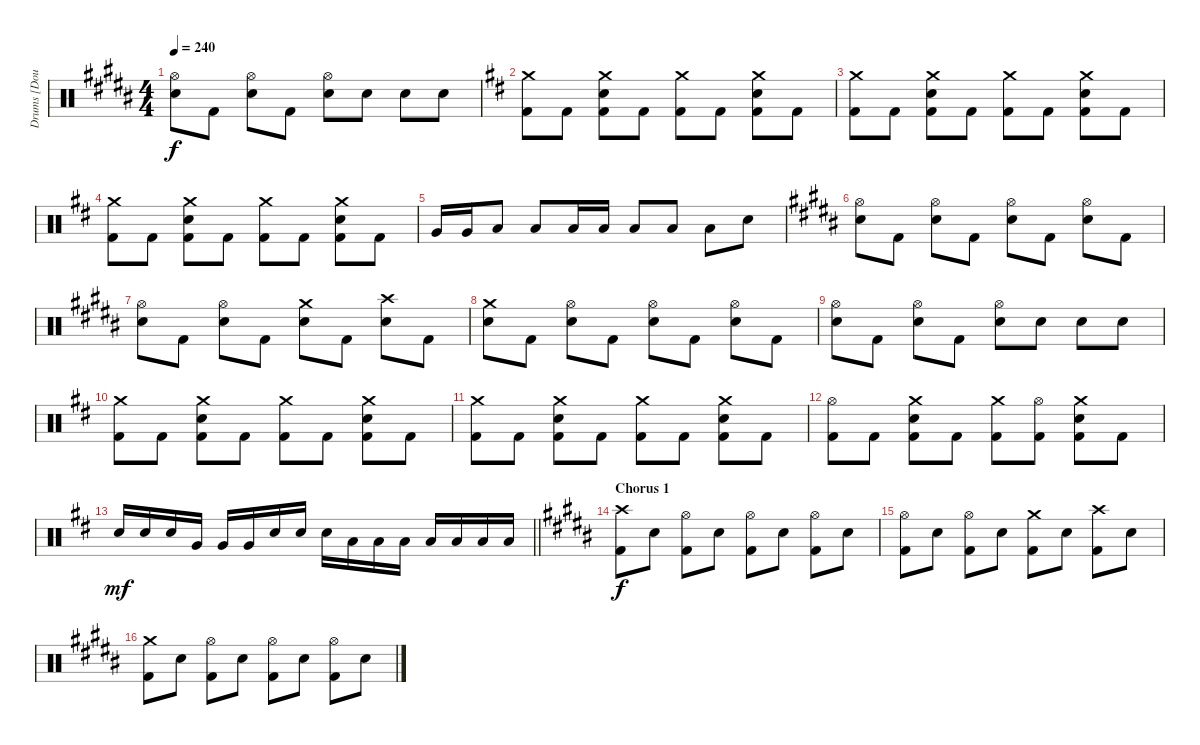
\track ("Drums [Doug Anderson]" "Drums [Dou") {instrument percussion}
\staff {score}
\articulation defaults
\ts (4 4)
\tempo 240
\clef neutral
\ks b
("Hi-Hat (open)" "Electric Snare (hit)").8{dy f} "Kick (hit) 2".8 ("Hi-Hat (open)" "Electric Snare (hit)").8 "Kick (hit) 2".8 ("Hi-Hat (open)" "Electric Snare (hit)").8 "Electric Snare (hit)".8 "Electric Snare (hit)".8 "Electric Snare (hit)".8 |
\ks bminor
("Crash medium (hit)" "Kick (hit) 2").8 "Kick (hit) 2".8 ("Crash medium (hit)" "Electric Snare (hit)" "Kick (hit) 2").8 "Kick (hit) 2".8 ("Crash medium (hit)" "Kick (hit) 2").8 "Kick (hit) 2".8 ("Crash medium (hit)" "Electric Snare (hit)" "Kick (hit) 2").8 "Kick (hit) 2".8 |
("Crash medium (hit)" "Kick (hit) 2").8 "Kick (hit) 2".8 ("Crash medium (hit)" "Electric Snare (hit)" "Kick (hit) 2").8 "Kick (hit) 2".8 ("Crash medium (hit)" "Kick (hit) 2").8 "Kick (hit) 2".8 ("Crash medium (hit)" "Electric Snare (hit)" "Kick (hit) 2").8 "Kick (hit) 2".8 |
("Crash medium (hit)" "Kick (hit) 2").8 "Kick (hit) 2".8 ("Crash medium (hit)" "Electric Snare (hit)" "Kick (hit) 2").8 "Kick (hit) 2".8 ("Crash medium (hit)" "Kick (hit) 2").8 "Kick (hit) 2".8 ("Crash medium (hit)" "Electric Snare (hit)" "Kick (hit) 2").8 "Kick (hit) 2".8 |
"Very Low Tom (hit)".16 "Very Low Tom (hit)".16 "Low Tom (hit)".8 "Low Tom (hit)".8 "Low Floor Tom (hit)".16 "Low Floor Tom (hit)".16 "Low Tom (hit)".8 "Low Tom (hit)".8 "Low Tom (hit)".8 "Electric Snare (hit)".8 |
\ks b
("Hi-Hat (open)" "Electric Snare (hit)").8 "Kick (hit) 2".8 ("Hi-Hat (open)" "Electric Snare (hit)").8 "Kick (hit) 2".8 ("Hi-Hat (open)" "Electric Snare (hit)").8 "Kick (hit) 2".8 ("Hi-Hat (open)" "Electric Snare (hit)").8 "Kick (hit) 2".8 |
("Hi-Hat (open)" "Electric Snare (hit)").8 "Kick (hit) 2".8 ("Hi-Hat (open)" "Electric Snare (hit)").8 "Kick (hit) 2".8 ("Crash medium (hit)" "Electric Snare (hit)").8 "Kick (hit) 2".8 ("Crash high (hit)" "Electric Snare (hit)").8 "Kick (hit) 2".8 |
("Crash medium (hit)" "Electric Snare (hit)").8 "Kick (hit) 2".8 ("Hi-Hat (open)" "Electric Snare (hit)").8 "Kick (hit) 2".8 ("Hi-Hat (open)" "Electric Snare (hit)").8 "Kick (hit) 2".8 ("Hi-Hat (open)" "Electric Snare (hit)").8 "Kick (hit) 2".8 |
("Hi-Hat (open)" "Electric Snare (hit)").8 "Kick (hit) 2".8 ("Hi-Hat (open)" "Electric Snare (hit)").8 "Kick (hit) 2".8 ("Hi-Hat (open)" "Electric Snare (hit)").8 "Electric Snare (hit)".8 "Electric Snare (hit)".8 "Electric Snare (hit)".8 |
\ks bminor
("Crash medium (hit)" "Kick (hit) 2").8 "Kick (hit) 2".8 ("Crash medium (hit)" "Electric Snare (hit)" "Kick (hit) 2").8 "Kick (hit) 2".8 ("Crash medium (hit)" "Kick (hit) 2").8 "Kick (hit) 2".8 ("Crash medium (hit)" "Electric Snare (hit)" "Kick (hit) 2").8 "Kick (hit) 2".8 |
("Crash medium (hit)" "Kick (hit) 2").8 "Kick (hit) 2".8 ("Crash medium (hit)" "Electric Snare (hit)" "Kick (hit) 2").8 "Kick (hit) 2".8 ("Crash medium (hit)" "Kick (hit) 2").8 "Kick (hit) 2".8 ("Crash medium (hit)" "Electric Snare (hit)" "Kick (hit) 2").8 "Kick (hit) 2".8 |
("Hi-Hat (open)" "Kick (hit) 2").8 "Kick (hit) 2".8 ("Crash medium (hit)" "Electric Snare (hit)" "Kick (hit) 2").8 "Kick (hit) 2".8 ("Crash medium (hit)" "Kick (hit) 2").8 ("Hi-Hat (open)" "Kick (hit) 2").8 ("Crash medium (hit)" "Electric Snare (hit)" "Kick (hit) 2").8 "Kick (hit) 2".8 |
\barLineRight lightlight "Electric Snare (hit)".16{dy mf} "Electric Snare (hit)".16 "Electric Snare (hit)".16 "Very Low Tom (hit)".16 "Very Low Tom (hit)".16 "Very Low Tom (hit)".16 "Electric Snare (hit)".16 "Electric Snare (hit)".16 "Electric Snare (hit)".16 "Low Tom (hit)".16 "Low Tom (hit)".16 "Low Tom (hit)".16 "Low Floor Tom (hit)".16 "Low Floor Tom (hit)".16 "Low Floor Tom (hit)".16 "Low Floor Tom (hit)".16
|
\section ("" "Chorus 1")
\ks b
("Crash high (hit)" "Kick (hit) 2").8{dy f} "Electric Snare (hit)".8 ("Hi-Hat (open)" "Kick (hit) 2").8 "Electric Snare (hit)".8 ("Hi-Hat (open)" "Kick (hit) 2").8 "Electric Snare (hit)".8 ("Hi-Hat (open)" "Kick (hit) 2").8 "Electric Snare (hit)".8 |
("Hi-Hat (open)" "Kick (hit) 2").8 "Electric Snare (hit)".8 ("Hi-Hat (open)" "Kick (hit) 2").8 "Electric Snare (hit)".8 ("Crash medium (hit)" "Kick (hit) 2").8 "Electric Snare (hit)".8 ("Crash high (hit)" "Kick (hit) 2").8 "Electric Snare (hit)".8 |
("Crash medium (hit)" "Kick (hit) 2").8 "Electric Snare (hit)".8 ("Hi-Hat (open)" "Kick (hit) 2").8 "Electric Snare (hit)".8 ("Hi-Hat (open)" "Kick (hit) 2").8 "Electric Snare (hit)".8 ("Hi-Hat (open)" "Kick (hit) 2").8 "Electric Snare (hit)".8
